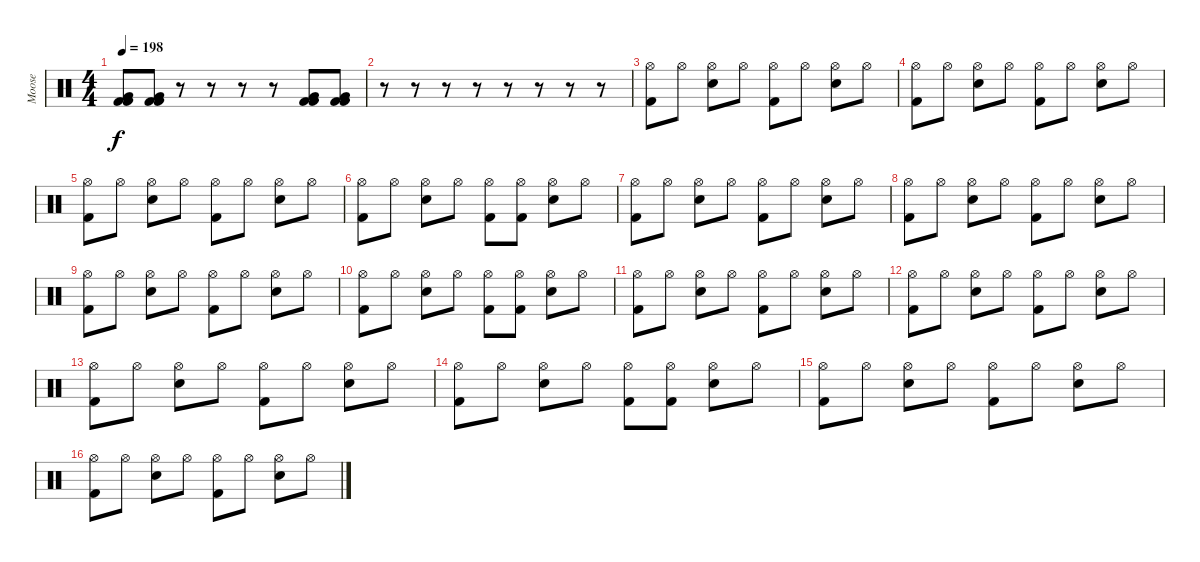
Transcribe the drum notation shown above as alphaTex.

\track ("Moose" "Moose") {instrument percussion}
\staff {score}
\articulation defaults
\ts (4 4)
\tempo 198
\clef neutral
\ks c
("Very Low Tom (hit)" "Kick (hit) 2" "Kick (hit) 2").8{dy f} ("Very Low Tom (hit)" "Kick (hit) 2" "Kick (hit) 2").8 r.8 r.8 r.8 r.8 ("Very Low Tom (hit)" "Kick (hit) 2" "Kick (hit) 2").8 ("Very Low Tom (hit)" "Kick (hit) 2" "Kick (hit) 2").8 |
r.8 r.8 r.8 r.8 r.8 r.8 r.8 r.8 |
("Hi-Hat (open)" "Kick (hit) 2").8 "Hi-Hat (open)".8 ("Hi-Hat (open)" "Electric Snare (hit)").8 "Hi-Hat (open)".8 ("Hi-Hat (open)" "Kick (hit) 2").8 "Hi-Hat (open)".8 ("Hi-Hat (open)" "Electric Snare (hit)").8 "Hi-Hat (open)".8 |
("Hi-Hat (open)" "Kick (hit) 2").8 "Hi-Hat (open)".8 ("Hi-Hat (open)" "Electric Snare (hit)").8 "Hi-Hat (open)".8 ("Hi-Hat (open)" "Kick (hit) 2").8 "Hi-Hat (open)".8 ("Hi-Hat (open)" "Electric Snare (hit)").8 "Hi-Hat (open)".8 |
("Hi-Hat (open)" "Kick (hit) 2").8 "Hi-Hat (open)".8 ("Hi-Hat (open)" "Electric Snare (hit)").8 "Hi-Hat (open)".8 ("Hi-Hat (open)" "Kick (hit) 2").8 "Hi-Hat (open)".8 ("Hi-Hat (open)" "Electric Snare (hit)").8 "Hi-Hat (open)".8 |
("Hi-Hat (open)" "Kick (hit) 2").8 "Hi-Hat (open)".8 ("Hi-Hat (open)" "Electric Snare (hit)").8 "Hi-Hat (open)".8 ("Hi-Hat (open)" "Kick (hit) 2").8 ("Hi-Hat (open)" "Kick (hit) 2").8 ("Hi-Hat (open)" "Electric Snare (hit)").8 "Hi-Hat (open)".8 |
("Hi-Hat (open)" "Kick (hit) 2").8 "Hi-Hat (open)".8 ("Hi-Hat (open)" "Electric Snare (hit)").8 "Hi-Hat (open)".8 ("Hi-Hat (open)" "Kick (hit) 2").8 "Hi-Hat (open)".8 ("Hi-Hat (open)" "Electric Snare (hit)").8 "Hi-Hat (open)".8 |
("Hi-Hat (open)" "Kick (hit) 2").8 "Hi-Hat (open)".8 ("Hi-Hat (open)" "Electric Snare (hit)").8 "Hi-Hat (open)".8 ("Hi-Hat (open)" "Kick (hit) 2").8 "Hi-Hat (open)".8 ("Hi-Hat (open)" "Electric Snare (hit)").8 "Hi-Hat (open)".8 |
("Hi-Hat (open)" "Kick (hit) 2").8 "Hi-Hat (open)".8 ("Hi-Hat (open)" "Electric Snare (hit)").8 "Hi-Hat (open)".8 ("Hi-Hat (open)" "Kick (hit) 2").8 "Hi-Hat (open)".8 ("Hi-Hat (open)" "Electric Snare (hit)").8 "Hi-Hat (open)".8 |
("Hi-Hat (open)" "Kick (hit) 2").8 "Hi-Hat (open)".8 ("Hi-Hat (open)" "Electric Snare (hit)").8 "Hi-Hat (open)".8 ("Hi-Hat (open)" "Kick (hit) 2").8 ("Hi-Hat (open)" "Kick (hit) 2").8 ("Hi-Hat (open)" "Electric Snare (hit)").8 "Hi-Hat (open)".8 |
("Hi-Hat (open)" "Kick (hit) 2").8 "Hi-Hat (open)".8 ("Hi-Hat (open)" "Electric Snare (hit)").8 "Hi-Hat (open)".8 ("Hi-Hat (open)" "Kick (hit) 2").8 "Hi-Hat (open)".8 ("Hi-Hat (open)" "Electric Snare (hit)").8 "Hi-Hat (open)".8 |
("Hi-Hat (open)" "Kick (hit) 2").8 "Hi-Hat (open)".8 ("Hi-Hat (open)" "Electric Snare (hit)").8 "Hi-Hat (open)".8 ("Hi-Hat (open)" "Kick (hit) 2").8 "Hi-Hat (open)".8 ("Hi-Hat (open)" "Electric Snare (hit)").8 "Hi-Hat (open)".8 |
("Hi-Hat (open)" "Kick (hit) 2").8 "Hi-Hat (open)".8 ("Hi-Hat (open)" "Electric Snare (hit)").8 "Hi-Hat (open)".8 ("Hi-Hat (open)" "Kick (hit) 2").8 "Hi-Hat (open)".8 ("Hi-Hat (open)" "Electric Snare (hit)").8 "Hi-Hat (open)".8 |
("Hi-Hat (open)" "Kick (hit) 2").8 "Hi-Hat (open)".8 ("Hi-Hat (open)" "Electric Snare (hit)").8 "Hi-Hat (open)".8 ("Hi-Hat (open)" "Kick (hit) 2").8 ("Hi-Hat (open)" "Kick (hit) 2").8 ("Hi-Hat (open)" "Electric Snare (hit)").8 "Hi-Hat (open)".8 |
("Hi-Hat (open)" "Kick (hit) 2").8 "Hi-Hat (open)".8 ("Hi-Hat (open)" "Electric Snare (hit)").8 "Hi-Hat (open)".8 ("Hi-Hat (open)" "Kick (hit) 2").8 "Hi-Hat (open)".8 ("Hi-Hat (open)" "Electric Snare (hit)").8 "Hi-Hat (open)".8 |
("Hi-Hat (open)" "Kick (hit) 2").8 "Hi-Hat (open)".8 ("Hi-Hat (open)" "Electric Snare (hit)").8 "Hi-Hat (open)".8 ("Hi-Hat (open)" "Kick (hit) 2").8 "Hi-Hat (open)".8 ("Hi-Hat (open)" "Electric Snare (hit)").8 "Hi-Hat (open)".8
